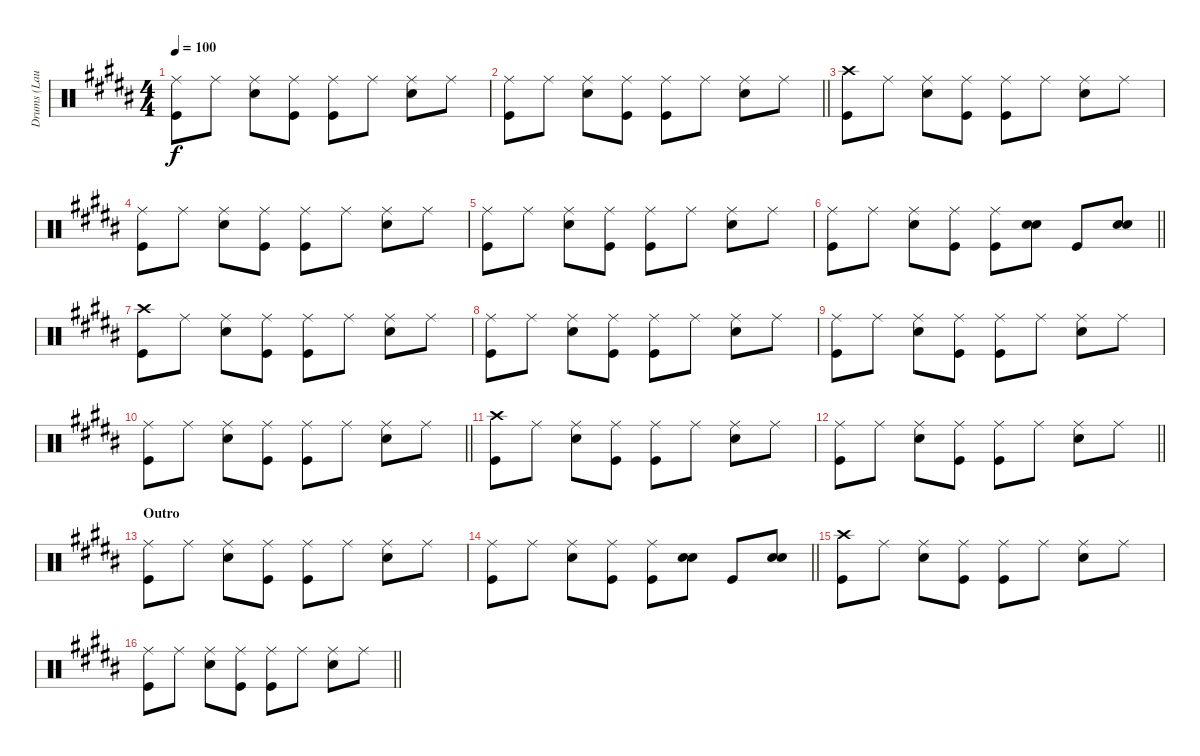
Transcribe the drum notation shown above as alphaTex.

\track ("Drums (Laust Sonne)" "Drums (Lau") {instrument percussion}
\staff {score}
\articulation defaults
\ts (4 4)
\tempo 100
\clef neutral
\ks b
("Ride (middle)" "Kick (hit)").8{dy f} "Ride (middle)".8 ("Ride (middle)" "Snare (hit) 2").8 ("Ride (middle)" "Kick (hit)").8 ("Ride (middle)" "Kick (hit)").8 "Ride (middle)".8 ("Ride (middle)" "Snare (hit) 2").8 "Ride (middle)".8 |
\barLineRight lightlight
("Ride (middle)" "Kick (hit)").8 "Ride (middle)".8 ("Ride (middle)" "Snare (hit) 2").8 ("Ride (middle)" "Kick (hit)").8 ("Ride (middle)" "Kick (hit)").8 "Ride (middle)".8 ("Ride (middle)" "Snare (hit) 2").8 "Ride (middle)".8 |
("Crash high (hit)" "Kick (hit)").8 "Ride (middle)".8 ("Ride (middle)" "Snare (hit) 2").8 ("Ride (middle)" "Kick (hit)").8 ("Ride (middle)" "Kick (hit)").8 "Ride (middle)".8 ("Ride (middle)" "Snare (hit) 2").8 "Ride (middle)".8 |
("Ride (middle)" "Kick (hit)").8 "Ride (middle)".8 ("Ride (middle)" "Snare (hit) 2").8 ("Ride (middle)" "Kick (hit)").8 ("Ride (middle)" "Kick (hit)").8 "Ride (middle)".8 ("Ride (middle)" "Snare (hit) 2").8 "Ride (middle)".8 |
("Ride (middle)" "Kick (hit)").8 "Ride (middle)".8 ("Ride (middle)" "Snare (hit) 2").8 ("Ride (middle)" "Kick (hit)").8 ("Ride (middle)" "Kick (hit)").8 "Ride (middle)".8 ("Ride (middle)" "Snare (hit) 2").8 "Ride (middle)".8 |
\barLineRight lightlight
("Ride (middle)" "Kick (hit)").8 "Ride (middle)".8 ("Ride (middle)" "Snare (hit) 2").8 ("Ride (middle)" "Kick (hit)").8 ("Ride (middle)" "Kick (hit)").8 ("Snare (hit) 2" "Snare (hit) 2").8 "Kick (hit)".8 ("Snare (hit) 2" "Snare (hit) 2").8 |
("Crash high (hit)" "Kick (hit)").8 "Ride (middle)".8 ("Ride (middle)" "Snare (hit) 2").8 ("Ride (middle)" "Kick (hit)").8 ("Ride (middle)" "Kick (hit)").8 "Ride (middle)".8 ("Ride (middle)" "Snare (hit) 2").8 "Ride (middle)".8 |
("Ride (middle)" "Kick (hit)").8 "Ride (middle)".8 ("Ride (middle)" "Snare (hit) 2").8 ("Ride (middle)" "Kick (hit)").8 ("Ride (middle)" "Kick (hit)").8 "Ride (middle)".8 ("Ride (middle)" "Snare (hit) 2").8 "Ride (middle)".8 |
("Ride (middle)" "Kick (hit)").8 "Ride (middle)".8 ("Ride (middle)" "Snare (hit) 2").8 ("Ride (middle)" "Kick (hit)").8 ("Ride (middle)" "Kick (hit)").8 "Ride (middle)".8 ("Ride (middle)" "Snare (hit) 2").8 "Ride (middle)".8 |
\barLineRight lightlight
("Ride (middle)" "Kick (hit)").8 "Ride (middle)".8 ("Ride (middle)" "Snare (hit) 2").8 ("Ride (middle)" "Kick (hit)").8 ("Ride (middle)" "Kick (hit)").8 "Ride (middle)".8 ("Ride (middle)" "Snare (hit) 2").8 "Ride (middle)".8 |
("Crash high (hit)" "Kick (hit)").8 "Ride (middle)".8 ("Ride (middle)" "Snare (hit) 2").8 ("Ride (middle)" "Kick (hit)").8 ("Ride (middle)" "Kick (hit)").8 "Ride (middle)".8 ("Ride (middle)" "Snare (hit) 2").8 "Ride (middle)".8 |
\barLineRight lightlight
("Ride (middle)" "Kick (hit)").8 "Ride (middle)".8 ("Ride (middle)" "Snare (hit) 2").8 ("Ride (middle)" "Kick (hit)").8 ("Ride (middle)" "Kick (hit)").8 "Ride (middle)".8 ("Ride (middle)" "Snare (hit) 2").8 "Ride (middle)".8 |
\section ("" "Outro")
("Ride (middle)" "Kick (hit)").8 "Ride (middle)".8 ("Ride (middle)" "Snare (hit) 2").8 ("Ride (middle)" "Kick (hit)").8 ("Ride (middle)" "Kick (hit)").8 "Ride (middle)".8 ("Ride (middle)" "Snare (hit) 2").8 "Ride (middle)".8 |
\barLineRight lightlight
("Ride (middle)" "Kick (hit)").8 "Ride (middle)".8 ("Ride (middle)" "Snare (hit) 2").8 ("Ride (middle)" "Kick (hit)").8 ("Ride (middle)" "Kick (hit)").8 ("Snare (hit) 2" "Snare (hit) 2").8 "Kick (hit)".8 ("Snare (hit) 2" "Snare (hit) 2").8 |
("Crash high (hit)" "Kick (hit)").8 "Ride (middle)".8 ("Ride (middle)" "Snare (hit) 2").8 ("Ride (middle)" "Kick (hit)").8 ("Ride (middle)" "Kick (hit)").8 "Ride (middle)".8 ("Ride (middle)" "Snare (hit) 2").8 "Ride (middle)".8 |
\barLineRight lightlight
("Ride (middle)" "Kick (hit)").8 "Ride (middle)".8 ("Ride (middle)" "Snare (hit) 2").8 ("Ride (middle)" "Kick (hit)").8 ("Ride (middle)" "Kick (hit)").8 "Ride (middle)".8 ("Ride (middle)" "Snare (hit) 2").8 "Ride (middle)".8
